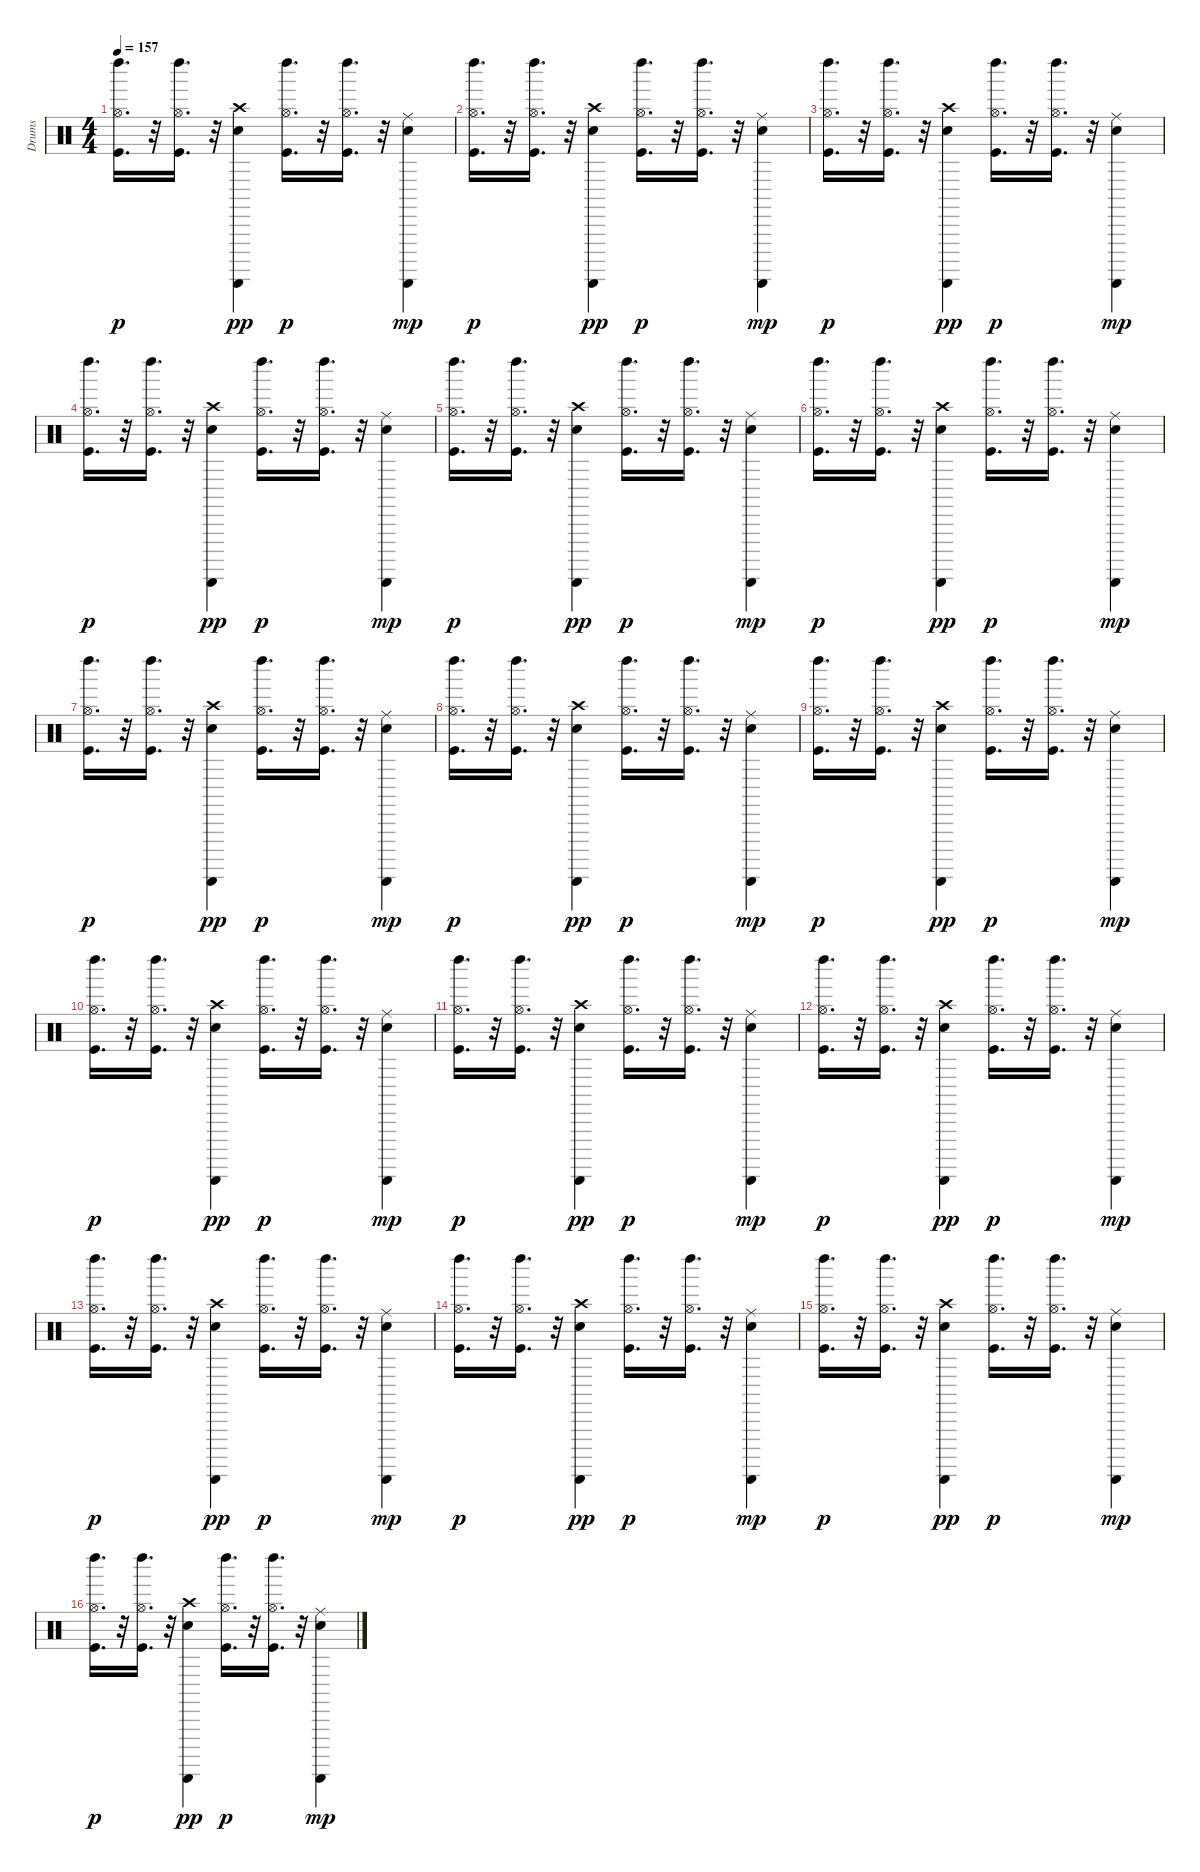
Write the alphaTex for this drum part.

\track ("Drums               " "Drums     ") {instrument percussion}
\staff {score}
\articulation defaults
\ts (4 4)
\tempo 157
\clef neutral
\ks c
("Left Maraca (hit)" "Kick (hit)" "Hi-Hat (open)").16{d dy p} r.32 ("Left Maraca (hit)" "Kick (hit)" "Hi-Hat (open)").16{d} r.32 ("Hand Clap (hit)" "Guiro (scrap-return)" "Crash high (hit)").4{dy pp} ("Left Maraca (hit)" "Kick (hit)" "Hi-Hat (open)").16{d dy p} r.32 ("Left Maraca (hit)" "Kick (hit)" "Hi-Hat (open)").16{d} r.32 ("Hand Clap (hit)" "Guiro (scrap-return)" "Ride (middle)").4{dy mp} |
("Left Maraca (hit)" "Kick (hit)" "Hi-Hat (open)").16{d dy p} r.32 ("Left Maraca (hit)" "Kick (hit)" "Hi-Hat (open)").16{d} r.32 ("Hand Clap (hit)" "Guiro (scrap-return)" "Crash high (hit)").4{dy pp} ("Left Maraca (hit)" "Kick (hit)" "Hi-Hat (open)").16{d dy p} r.32 ("Left Maraca (hit)" "Kick (hit)" "Hi-Hat (open)").16{d} r.32 ("Hand Clap (hit)" "Guiro (scrap-return)" "Ride (middle)").4{dy mp} |
("Left Maraca (hit)" "Kick (hit)" "Hi-Hat (open)").16{d dy p} r.32 ("Left Maraca (hit)" "Kick (hit)" "Hi-Hat (open)").16{d} r.32 ("Hand Clap (hit)" "Guiro (scrap-return)" "Crash high (hit)").4{dy pp} ("Left Maraca (hit)" "Kick (hit)" "Hi-Hat (open)").16{d dy p} r.32 ("Left Maraca (hit)" "Kick (hit)" "Hi-Hat (open)").16{d} r.32 ("Hand Clap (hit)" "Guiro (scrap-return)" "Ride (middle)").4{dy mp} |
("Left Maraca (hit)" "Kick (hit)" "Hi-Hat (open)").16{d dy p} r.32 ("Left Maraca (hit)" "Kick (hit)" "Hi-Hat (open)").16{d} r.32 ("Hand Clap (hit)" "Guiro (scrap-return)" "Crash high (hit)").4{dy pp} ("Left Maraca (hit)" "Kick (hit)" "Hi-Hat (open)").16{d dy p} r.32 ("Left Maraca (hit)" "Kick (hit)" "Hi-Hat (open)").16{d} r.32 ("Hand Clap (hit)" "Guiro (scrap-return)" "Ride (middle)").4{dy mp} |
("Left Maraca (hit)" "Kick (hit)" "Hi-Hat (open)").16{d dy p} r.32 ("Left Maraca (hit)" "Kick (hit)" "Hi-Hat (open)").16{d} r.32 ("Hand Clap (hit)" "Guiro (scrap-return)" "Crash high (hit)").4{dy pp} ("Left Maraca (hit)" "Kick (hit)" "Hi-Hat (open)").16{d dy p} r.32 ("Left Maraca (hit)" "Kick (hit)" "Hi-Hat (open)").16{d} r.32 ("Hand Clap (hit)" "Guiro (scrap-return)" "Ride (middle)").4{dy mp} |
("Left Maraca (hit)" "Kick (hit)" "Hi-Hat (open)").16{d dy p} r.32 ("Left Maraca (hit)" "Kick (hit)" "Hi-Hat (open)").16{d} r.32 ("Hand Clap (hit)" "Guiro (scrap-return)" "Crash high (hit)").4{dy pp} ("Left Maraca (hit)" "Kick (hit)" "Hi-Hat (open)").16{d dy p} r.32 ("Left Maraca (hit)" "Kick (hit)" "Hi-Hat (open)").16{d} r.32 ("Hand Clap (hit)" "Guiro (scrap-return)" "Ride (middle)").4{dy mp} |
("Left Maraca (hit)" "Kick (hit)" "Hi-Hat (open)").16{d dy p} r.32 ("Left Maraca (hit)" "Kick (hit)" "Hi-Hat (open)").16{d} r.32 ("Hand Clap (hit)" "Guiro (scrap-return)" "Crash high (hit)").4{dy pp} ("Left Maraca (hit)" "Kick (hit)" "Hi-Hat (open)").16{d dy p} r.32 ("Left Maraca (hit)" "Kick (hit)" "Hi-Hat (open)").16{d} r.32 ("Hand Clap (hit)" "Guiro (scrap-return)" "Ride (middle)").4{dy mp} |
("Left Maraca (hit)" "Kick (hit)" "Hi-Hat (open)").16{d dy p} r.32 ("Left Maraca (hit)" "Kick (hit)" "Hi-Hat (open)").16{d} r.32 ("Hand Clap (hit)" "Guiro (scrap-return)" "Crash high (hit)").4{dy pp} ("Left Maraca (hit)" "Kick (hit)" "Hi-Hat (open)").16{d dy p} r.32 ("Left Maraca (hit)" "Kick (hit)" "Hi-Hat (open)").16{d} r.32 ("Hand Clap (hit)" "Guiro (scrap-return)" "Ride (middle)").4{dy mp} |
("Left Maraca (hit)" "Kick (hit)" "Hi-Hat (open)").16{d dy p} r.32 ("Left Maraca (hit)" "Kick (hit)" "Hi-Hat (open)").16{d} r.32 ("Hand Clap (hit)" "Guiro (scrap-return)" "Crash high (hit)").4{dy pp} ("Left Maraca (hit)" "Kick (hit)" "Hi-Hat (open)").16{d dy p} r.32 ("Left Maraca (hit)" "Kick (hit)" "Hi-Hat (open)").16{d} r.32 ("Hand Clap (hit)" "Guiro (scrap-return)" "Ride (middle)").4{dy mp} |
("Left Maraca (hit)" "Kick (hit)" "Hi-Hat (open)").16{d dy p} r.32 ("Left Maraca (hit)" "Kick (hit)" "Hi-Hat (open)").16{d} r.32 ("Hand Clap (hit)" "Guiro (scrap-return)" "Crash high (hit)").4{dy pp} ("Left Maraca (hit)" "Kick (hit)" "Hi-Hat (open)").16{d dy p} r.32 ("Left Maraca (hit)" "Kick (hit)" "Hi-Hat (open)").16{d} r.32 ("Hand Clap (hit)" "Guiro (scrap-return)" "Ride (middle)").4{dy mp} |
("Left Maraca (hit)" "Kick (hit)" "Hi-Hat (open)").16{d dy p} r.32 ("Left Maraca (hit)" "Kick (hit)" "Hi-Hat (open)").16{d} r.32 ("Hand Clap (hit)" "Guiro (scrap-return)" "Crash high (hit)").4{dy pp} ("Left Maraca (hit)" "Kick (hit)" "Hi-Hat (open)").16{d dy p} r.32 ("Left Maraca (hit)" "Kick (hit)" "Hi-Hat (open)").16{d} r.32 ("Hand Clap (hit)" "Guiro (scrap-return)" "Ride (middle)").4{dy mp} |
("Left Maraca (hit)" "Kick (hit)" "Hi-Hat (open)").16{d dy p} r.32 ("Left Maraca (hit)" "Kick (hit)" "Hi-Hat (open)").16{d} r.32 ("Hand Clap (hit)" "Guiro (scrap-return)" "Crash high (hit)").4{dy pp} ("Left Maraca (hit)" "Kick (hit)" "Hi-Hat (open)").16{d dy p} r.32 ("Left Maraca (hit)" "Kick (hit)" "Hi-Hat (open)").16{d} r.32 ("Hand Clap (hit)" "Guiro (scrap-return)" "Ride (middle)").4{dy mp} |
("Left Maraca (hit)" "Kick (hit)" "Hi-Hat (open)").16{d dy p} r.32 ("Left Maraca (hit)" "Kick (hit)" "Hi-Hat (open)").16{d} r.32 ("Hand Clap (hit)" "Guiro (scrap-return)" "Crash high (hit)").4{dy pp} ("Left Maraca (hit)" "Kick (hit)" "Hi-Hat (open)").16{d dy p} r.32 ("Left Maraca (hit)" "Kick (hit)" "Hi-Hat (open)").16{d} r.32 ("Hand Clap (hit)" "Guiro (scrap-return)" "Ride (middle)").4{dy mp} |
("Left Maraca (hit)" "Kick (hit)" "Hi-Hat (open)").16{d dy p} r.32 ("Left Maraca (hit)" "Kick (hit)" "Hi-Hat (open)").16{d} r.32 ("Hand Clap (hit)" "Guiro (scrap-return)" "Crash high (hit)").4{dy pp} ("Left Maraca (hit)" "Kick (hit)" "Hi-Hat (open)").16{d dy p} r.32 ("Left Maraca (hit)" "Kick (hit)" "Hi-Hat (open)").16{d} r.32 ("Hand Clap (hit)" "Guiro (scrap-return)" "Ride (middle)").4{dy mp} |
("Left Maraca (hit)" "Kick (hit)" "Hi-Hat (open)").16{d dy p} r.32 ("Left Maraca (hit)" "Kick (hit)" "Hi-Hat (open)").16{d} r.32 ("Hand Clap (hit)" "Guiro (scrap-return)" "Crash high (hit)").4{dy pp} ("Left Maraca (hit)" "Kick (hit)" "Hi-Hat (open)").16{d dy p} r.32 ("Left Maraca (hit)" "Kick (hit)" "Hi-Hat (open)").16{d} r.32 ("Hand Clap (hit)" "Guiro (scrap-return)" "Ride (middle)").4{dy mp} |
("Left Maraca (hit)" "Kick (hit)" "Hi-Hat (open)").16{d dy p} r.32 ("Left Maraca (hit)" "Kick (hit)" "Hi-Hat (open)").16{d} r.32 ("Hand Clap (hit)" "Guiro (scrap-return)" "Crash high (hit)").4{dy pp} ("Left Maraca (hit)" "Kick (hit)" "Hi-Hat (open)").16{d dy p} r.32 ("Left Maraca (hit)" "Kick (hit)" "Hi-Hat (open)").16{d} r.32 ("Hand Clap (hit)" "Guiro (scrap-return)" "Ride (middle)").4{dy mp}
